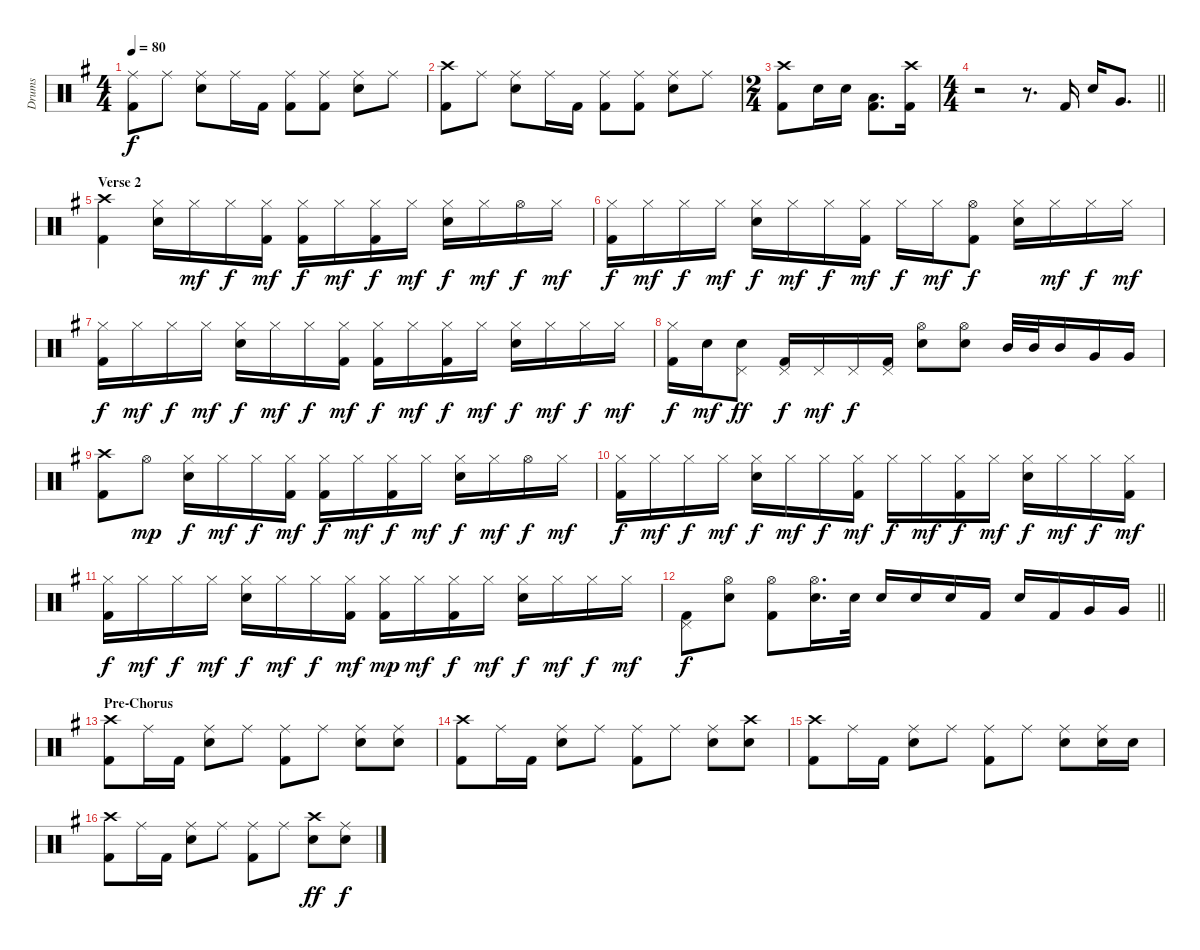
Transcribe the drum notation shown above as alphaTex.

\track ("Drums" "Drums") {instrument percussion}
\staff {score}
\articulation defaults
\ts (4 4)
\tempo 80
\clef neutral
\ks g
("Ride (middle)" "Kick (hit) 2").8{dy f} "Ride (middle)".8 ("Ride (middle)" "Electric Snare (hit)").8 "Ride (middle)".16 "Kick (hit) 2".16 ("Ride (middle)" "Kick (hit) 2").8 ("Ride (middle)" "Kick (hit) 2").8 ("Ride (middle)" "Electric Snare (hit)").8 "Ride (middle)".8 |
("Crash high (hit)" "Kick (hit) 2").8 "Ride (middle)".8 ("Ride (middle)" "Electric Snare (hit)").8 "Ride (middle)".16 "Kick (hit) 2".16 ("Ride (middle)" "Kick (hit) 2").8 ("Ride (middle)" "Kick (hit) 2").8 ("Ride (middle)" "Electric Snare (hit)").8 "Ride (middle)".8 |
\ts (2 4)
("Crash high (hit)" "Kick (hit) 2").8 "Electric Snare (hit)".16 "Electric Snare (hit)".16 ("Low Tom (hit)" "Kick (hit) 2").8{d} ("Crash high (hit)" "Kick (hit) 2").16 |
\ts (4 4)
\barLineRight lightlight
r.2 r.8{d} "Kick (hit) 2".16 "Electric Snare (hit)".16 "Very Low Tom (hit)".8{d} |
\section ("" "Verse 2")
("Crash high (hit)" "Kick (hit) 2").4 ("Hi-Hat (closed)" "Electric Snare (hit)").16 "Hi-Hat (closed)".16{dy mf} "Hi-Hat (closed)".16{dy f} ("Hi-Hat (closed)" "Kick (hit) 2").16{dy mf} ("Hi-Hat (closed)" "Kick (hit) 2").16{dy f} "Hi-Hat (closed)".16{dy mf} ("Hi-Hat (closed)" "Kick (hit) 2").16{dy f} "Hi-Hat (closed)".16{dy mf} ("Hi-Hat (closed)" "Electric Snare (hit)").16{dy f} "Hi-Hat (closed)".16{dy mf} "Hi-Hat (open)".16{dy f} "Hi-Hat (closed)".16{dy mf} |
("Hi-Hat (closed)" "Kick (hit) 2").16{dy f} "Hi-Hat (closed)".16{dy mf} "Hi-Hat (closed)".16{dy f} "Hi-Hat (closed)".16{dy mf} ("Hi-Hat (closed)" "Electric Snare (hit)").16{dy f} "Hi-Hat (closed)".16{dy mf} "Hi-Hat (closed)".16{dy f} ("Hi-Hat (closed)" "Kick (hit) 2").16{dy mf} "Hi-Hat (closed)".16{dy f} "Hi-Hat (closed)".16{dy mf} ("Hi-Hat (open)" "Kick (hit) 2").8{dy f} ("Hi-Hat (closed)" "Electric Snare (hit)").16 "Hi-Hat (closed)".16{dy mf} "Hi-Hat (closed)".16{dy f} "Hi-Hat (closed)".16{dy mf} |
("Hi-Hat (closed)" "Kick (hit) 2").16{dy f} "Hi-Hat (closed)".16{dy mf} "Hi-Hat (closed)".16{dy f} "Hi-Hat (closed)".16{dy mf} ("Hi-Hat (closed)" "Electric Snare (hit)").16{dy f} "Hi-Hat (closed)".16{dy mf} "Hi-Hat (closed)".16{dy f} ("Hi-Hat (closed)" "Kick (hit) 2").16{dy mf} ("Hi-Hat (closed)" "Kick (hit) 2").16{dy f} "Hi-Hat (closed)".16{dy mf} ("Hi-Hat (closed)" "Kick (hit) 2").16{dy f} "Hi-Hat (closed)".16{dy mf} ("Hi-Hat (closed)" "Electric Snare (hit)").16{dy f} "Hi-Hat (closed)".16{dy mf} "Hi-Hat (closed)".16{dy f} "Hi-Hat (closed)".16{dy mf} |
("Hi-Hat (closed)" "Kick (hit) 2").16{dy f} "Electric Snare (hit)".16{dy mf} ("Pedal Hi-Hat (hit)" "Electric Snare (hit)").8{dy ff} ("Pedal Hi-Hat (hit)" "Kick (hit) 2").16{dy f} "Pedal Hi-Hat (hit)".16{dy mf} "Pedal Hi-Hat (hit)".16{dy f} ("Pedal Hi-Hat (hit)" "Kick (hit) 2").16 ("Hi-Hat (open)" "Electric Snare (hit)").8 ("Hi-Hat (open)" "Electric Snare (hit)").8 "Mid Tom (hit)".32 "Mid Tom (hit)".32 "Mid Tom (hit)".16 "Very Low Tom (hit)".16 "Very Low Tom (hit)".16 |
("Crash high (hit)" "Kick (hit) 2").8 "Hi-Hat (open)".8{dy mp} ("Hi-Hat (closed)" "Electric Snare (hit)").16{dy f} "Hi-Hat (closed)".16{dy mf} "Hi-Hat (closed)".16{dy f} ("Hi-Hat (closed)" "Kick (hit) 2").16{dy mf} ("Hi-Hat (closed)" "Kick (hit) 2").16{dy f} "Hi-Hat (closed)".16{dy mf} ("Hi-Hat (closed)" "Kick (hit) 2").16{dy f} "Hi-Hat (closed)".16{dy mf} ("Hi-Hat (closed)" "Electric Snare (hit)").16{dy f} "Hi-Hat (closed)".16{dy mf} "Hi-Hat (open)".16{dy f} "Hi-Hat (closed)".16{dy mf} |
("Hi-Hat (closed)" "Kick (hit) 2").16{dy f} "Hi-Hat (closed)".16{dy mf} "Hi-Hat (closed)".16{dy f} "Hi-Hat (closed)".16{dy mf} ("Hi-Hat (closed)" "Electric Snare (hit)").16{dy f} "Hi-Hat (closed)".16{dy mf} "Hi-Hat (closed)".16{dy f} ("Hi-Hat (closed)" "Kick (hit) 2").16{dy mf} "Hi-Hat (closed)".16{dy f} "Hi-Hat (closed)".16{dy mf} ("Hi-Hat (closed)" "Kick (hit) 2").16{dy f} "Hi-Hat (closed)".16{dy mf} ("Hi-Hat (closed)" "Electric Snare (hit)").16{dy f} "Hi-Hat (closed)".16{dy mf} "Hi-Hat (closed)".16{dy f} ("Hi-Hat (closed)" "Kick (hit) 2").16{dy mf} |
("Hi-Hat (closed)" "Kick (hit) 2").16{dy f} "Hi-Hat (closed)".16{dy mf} "Hi-Hat (closed)".16{dy f} "Hi-Hat (closed)".16{dy mf} ("Hi-Hat (closed)" "Electric Snare (hit)").16{dy f} "Hi-Hat (closed)".16{dy mf} "Hi-Hat (closed)".16{dy f} ("Hi-Hat (closed)" "Kick (hit) 2").16{dy mf} ("Hi-Hat (closed)" "Kick (hit) 2").16{dy mp} "Hi-Hat (closed)".16{dy mf} ("Hi-Hat (closed)" "Kick (hit) 2").16{dy f} "Hi-Hat (closed)".16{dy mf} ("Hi-Hat (closed)" "Electric Snare (hit)").16{dy f} "Hi-Hat (closed)".16{dy mf} "Hi-Hat (closed)".16{dy f} "Hi-Hat (closed)".16{dy mf} |
\barLineRight lightlight
("Pedal Hi-Hat (hit)" "Kick (hit) 2").8{dy f} ("Hi-Hat (open)" "Electric Snare (hit)").8 ("Hi-Hat (open)" "Kick (hit) 2").8 ("Hi-Hat (open)" "Electric Snare (hit)").16{d} "Electric Snare (hit)".32 "Electric Snare (hit)".16 "Electric Snare (hit)".16 "Electric Snare (hit)".16 "Kick (hit) 2".16 "Electric Snare (hit)".16 "Kick (hit) 2".16 "Very Low Tom (hit)".16 "Very Low Tom (hit)".16 |
\section ("" "Pre-Chorus")
("Crash high (hit)" "Kick (hit) 2").8 "Ride (middle)".16 "Kick (hit) 2".16 ("Ride (middle)" "Electric Snare (hit)").8 "Ride (middle)".8 ("Ride (middle)" "Kick (hit) 2").8 "Ride (middle)".8 ("Ride (middle)" "Electric Snare (hit)").8 ("Ride (middle)" "Electric Snare (hit)").8 |
("Crash high (hit)" "Kick (hit) 2").8 "Ride (middle)".16 "Kick (hit) 2".16 ("Ride (middle)" "Electric Snare (hit)").8 "Ride (middle)".8 ("Ride (middle)" "Kick (hit) 2").8 "Ride (middle)".8 ("Ride (middle)" "Electric Snare (hit)").8 ("Crash high (hit)" "Electric Snare (hit)").8 |
("Crash high (hit)" "Kick (hit) 2").8 "Ride (middle)".16 "Kick (hit) 2".16 ("Ride (middle)" "Electric Snare (hit)").8 "Ride (middle)".8 ("Ride (middle)" "Kick (hit) 2").8 "Ride (middle)".8 ("Ride (middle)" "Electric Snare (hit)").8 ("Ride (middle)" "Electric Snare (hit)").16 "Electric Snare (hit)".16 |
("Crash high (hit)" "Kick (hit) 2").8 "Ride (middle)".16 "Kick (hit) 2".16 ("Ride (middle)" "Electric Snare (hit)").8 "Ride (middle)".8 ("Ride (middle)" "Kick (hit) 2").8 "Ride (middle)".8 ("Crash high (hit)" "Electric Snare (hit)").8{dy ff} ("Ride (middle)" "Electric Snare (hit)").8{dy f}
